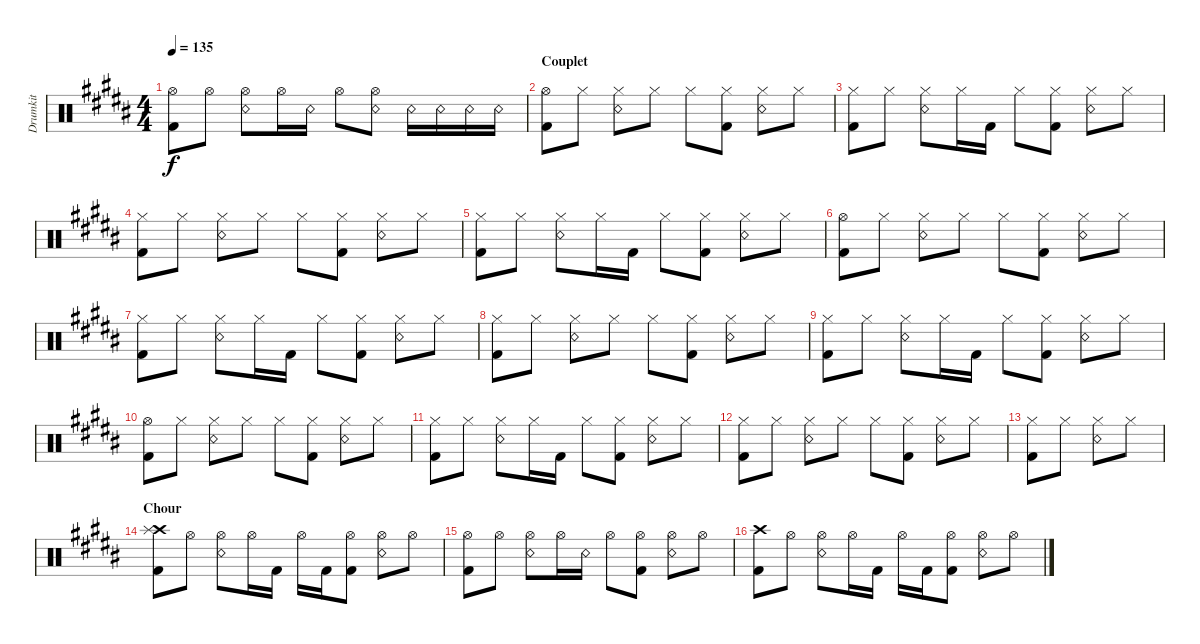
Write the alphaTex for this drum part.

\track ("Drumkit" "Drumkit") {instrument percussion}
\staff {score}
\articulation defaults
\ts (4 4)
\tempo 135
\clef neutral
\ks b
("Kick (hit) 2" "Hi-Hat (open)").8{dy f} "Hi-Hat (open)".8 ("Snare (rim shot)" "Hi-Hat (open)").8 "Hi-Hat (open)".16 "Snare (rim shot)".16 "Hi-Hat (open)".8 ("Hi-Hat (open)" "Snare (rim shot)").8 "Snare (rim shot)".16 "Snare (rim shot)".16 "Snare (rim shot)".16 "Snare (rim shot)".16 |
\section ("" "Couplet")
("Kick (hit) 2" "Hi-Hat (open)").8 "Hi-Hat (closed)".8 ("Hi-Hat (closed)" "Snare (rim shot)").8 "Hi-Hat (closed)".8 "Hi-Hat (closed)".8 ("Hi-Hat (closed)" "Kick (hit) 2").8 ("Hi-Hat (closed)" "Snare (rim shot)").8 "Hi-Hat (closed)".8 |
("Hi-Hat (closed)" "Kick (hit) 2").8 "Hi-Hat (closed)".8 ("Hi-Hat (closed)" "Snare (rim shot)").8 "Hi-Hat (closed)".16 "Kick (hit) 2".16 "Hi-Hat (closed)".8 ("Kick (hit) 2" "Hi-Hat (closed)").8 ("Snare (rim shot)" "Hi-Hat (closed)").8 "Hi-Hat (closed)".8 |
("Kick (hit) 2" "Hi-Hat (closed)").8 "Hi-Hat (closed)".8 ("Hi-Hat (closed)" "Snare (rim shot)").8 "Hi-Hat (closed)".8 "Hi-Hat (closed)".8 ("Hi-Hat (closed)" "Kick (hit) 2").8 ("Hi-Hat (closed)" "Snare (rim shot)").8 "Hi-Hat (closed)".8 |
("Hi-Hat (closed)" "Kick (hit) 2").8 "Hi-Hat (closed)".8 ("Hi-Hat (closed)" "Snare (rim shot)").8 "Hi-Hat (closed)".16 "Kick (hit) 2".16 "Hi-Hat (closed)".8 ("Kick (hit) 2" "Hi-Hat (closed)").8 ("Snare (rim shot)" "Hi-Hat (closed)").8 "Hi-Hat (closed)".8 |
("Kick (hit) 2" "Hi-Hat (open)").8 "Hi-Hat (closed)".8 ("Hi-Hat (closed)" "Snare (rim shot)").8 "Hi-Hat (closed)".8 "Hi-Hat (closed)".8 ("Hi-Hat (closed)" "Kick (hit) 2").8 ("Hi-Hat (closed)" "Snare (rim shot)").8 "Hi-Hat (closed)".8 |
("Hi-Hat (closed)" "Kick (hit) 2").8 "Hi-Hat (closed)".8 ("Hi-Hat (closed)" "Snare (rim shot)").8 "Hi-Hat (closed)".16 "Kick (hit) 2".16 "Hi-Hat (closed)".8 ("Kick (hit) 2" "Hi-Hat (closed)").8 ("Snare (rim shot)" "Hi-Hat (closed)").8 "Hi-Hat (closed)".8 |
("Kick (hit) 2" "Hi-Hat (closed)").8 "Hi-Hat (closed)".8 ("Hi-Hat (closed)" "Snare (rim shot)").8 "Hi-Hat (closed)".8 "Hi-Hat (closed)".8 ("Hi-Hat (closed)" "Kick (hit) 2").8 ("Hi-Hat (closed)" "Snare (rim shot)").8 "Hi-Hat (closed)".8 |
("Hi-Hat (closed)" "Kick (hit) 2").8 "Hi-Hat (closed)".8 ("Hi-Hat (closed)" "Snare (rim shot)").8 "Hi-Hat (closed)".16 "Kick (hit) 2".16 "Hi-Hat (closed)".8 ("Kick (hit) 2" "Hi-Hat (closed)").8 ("Snare (rim shot)" "Hi-Hat (closed)").8 "Hi-Hat (closed)".8 |
("Kick (hit) 2" "Hi-Hat (open)").8 "Hi-Hat (closed)".8 ("Hi-Hat (closed)" "Snare (rim shot)").8 "Hi-Hat (closed)".8 "Hi-Hat (closed)".8 ("Hi-Hat (closed)" "Kick (hit) 2").8 ("Hi-Hat (closed)" "Snare (rim shot)").8 "Hi-Hat (closed)".8 |
("Hi-Hat (closed)" "Kick (hit) 2").8 "Hi-Hat (closed)".8 ("Hi-Hat (closed)" "Snare (rim shot)").8 "Hi-Hat (closed)".16 "Kick (hit) 2".16 "Hi-Hat (closed)".8 ("Kick (hit) 2" "Hi-Hat (closed)").8 ("Snare (rim shot)" "Hi-Hat (closed)").8 "Hi-Hat (closed)".8 |
("Kick (hit) 2" "Hi-Hat (closed)").8 "Hi-Hat (closed)".8 ("Hi-Hat (closed)" "Snare (rim shot)").8 "Hi-Hat (closed)".8 "Hi-Hat (closed)".8 ("Hi-Hat (closed)" "Kick (hit) 2").8 ("Hi-Hat (closed)" "Snare (rim shot)").8 "Hi-Hat (closed)".8 |
("Hi-Hat (closed)" "Kick (hit) 2").8 "Hi-Hat (closed)".8 ("Hi-Hat (closed)" "Snare (rim shot)").8 "Hi-Hat (closed)".8 |
\section ("" "Chour")
("Kick (hit) 2" "Crash high (hit)" "Splash (hit)").8 "Hi-Hat (open)".8 ("Snare (rim shot)" "Hi-Hat (open)").8 "Hi-Hat (open)".16 "Kick (hit) 2".16 "Hi-Hat (open)".16 "Kick (hit) 2".16 ("Kick (hit) 2" "Hi-Hat (open)").8 ("Snare (rim shot)" "Hi-Hat (open)").8 "Hi-Hat (open)".8 |
("Kick (hit) 2" "Hi-Hat (open)").8 "Hi-Hat (open)".8 ("Snare (rim shot)" "Hi-Hat (open)").8 "Hi-Hat (open)".16 "Snare (rim shot)".16 "Hi-Hat (open)".8 ("Hi-Hat (open)" "Kick (hit) 2").8 ("Snare (rim shot)" "Hi-Hat (open)").8 "Hi-Hat (open)".8 |
("Kick (hit) 2" "Crash high (hit)").8 "Hi-Hat (open)".8 ("Snare (rim shot)" "Hi-Hat (open)").8 "Hi-Hat (open)".16 "Kick (hit) 2".16 "Hi-Hat (open)".16 "Kick (hit) 2".16 ("Kick (hit) 2" "Hi-Hat (open)").8 ("Snare (rim shot)" "Hi-Hat (open)").8 "Hi-Hat (open)".8
